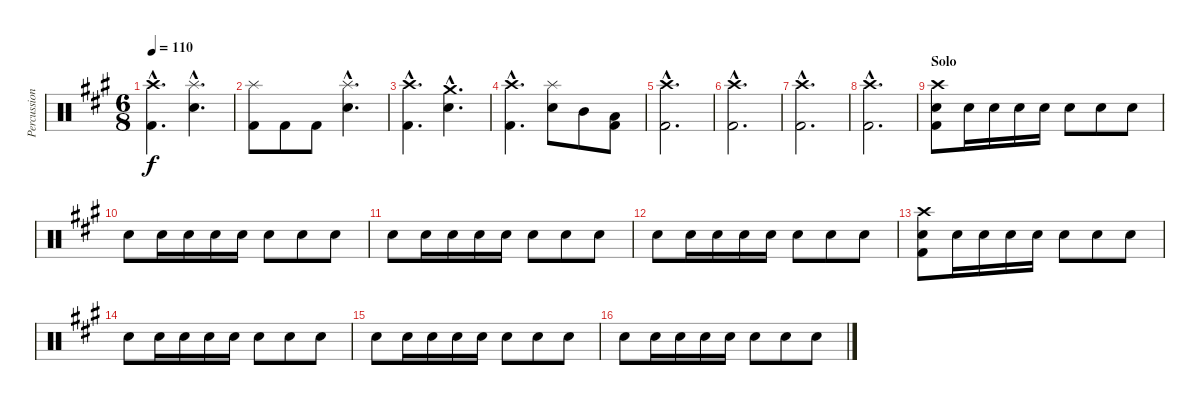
\track ("Percussions" "Percussion") {instrument percussion}
\staff {score}
\articulation defaults
\ts (6 8)
\tempo 110
\clef neutral
\ks a
("Crash high (hit)"{hac} "Kick (hit) 2"{hac}).4{d dy f} ("Splash (hit)"{hac} "Electric Snare (hit)"{hac}).4{d} |
("Splash (hit)" "Kick (hit) 2").8 "Kick (hit) 2".8 "Kick (hit) 2".8 ("Splash (hit)"{hac} "Electric Snare (hit)"{hac}).4{d} |
("Crash high (hit)"{hac} "Kick (hit) 2"{hac}).4{d} ("Crash medium (hit)"{hac} "Electric Snare (hit)"{hac}).4{d} |
("Crash high (hit)"{hac} "Kick (hit) 2"{hac}).4{d} ("Splash (hit)" "Electric Snare (hit)").8 "Mid Tom (hit)".8 ("Low Tom (hit)" "Kick (hit) 2").8 |
("Crash high (hit)"{hac} "Kick (hit) 2"{hac}).2{d} |
("Crash high (hit)"{hac} "Kick (hit) 2"{hac}).2{d} |
("Crash high (hit)"{hac} "Kick (hit) 2"{hac}).2{d} |
("Crash high (hit)"{hac} "Kick (hit) 2"{hac}).2{d} |
\section ("" "Solo")
("Crash high (hit)" "Electric Snare (hit)" "Kick (hit) 2").8 "Electric Snare (hit)".16 "Electric Snare (hit)".16 "Electric Snare (hit)".16 "Electric Snare (hit)".16 "Electric Snare (hit)".8 "Electric Snare (hit)".8 "Electric Snare (hit)".8 |
"Electric Snare (hit)".8 "Electric Snare (hit)".16 "Electric Snare (hit)".16 "Electric Snare (hit)".16 "Electric Snare (hit)".16 "Electric Snare (hit)".8 "Electric Snare (hit)".8 "Electric Snare (hit)".8 |
"Electric Snare (hit)".8 "Electric Snare (hit)".16 "Electric Snare (hit)".16 "Electric Snare (hit)".16 "Electric Snare (hit)".16 "Electric Snare (hit)".8 "Electric Snare (hit)".8 "Electric Snare (hit)".8 |
"Electric Snare (hit)".8 "Electric Snare (hit)".16 "Electric Snare (hit)".16 "Electric Snare (hit)".16 "Electric Snare (hit)".16 "Electric Snare (hit)".8 "Electric Snare (hit)".8 "Electric Snare (hit)".8 |
("Crash high (hit)" "Electric Snare (hit)" "Kick (hit) 2").8 "Electric Snare (hit)".16 "Electric Snare (hit)".16 "Electric Snare (hit)".16 "Electric Snare (hit)".16 "Electric Snare (hit)".8 "Electric Snare (hit)".8 "Electric Snare (hit)".8 |
"Electric Snare (hit)".8 "Electric Snare (hit)".16 "Electric Snare (hit)".16 "Electric Snare (hit)".16 "Electric Snare (hit)".16 "Electric Snare (hit)".8 "Electric Snare (hit)".8 "Electric Snare (hit)".8 |
"Electric Snare (hit)".8 "Electric Snare (hit)".16 "Electric Snare (hit)".16 "Electric Snare (hit)".16 "Electric Snare (hit)".16 "Electric Snare (hit)".8 "Electric Snare (hit)".8 "Electric Snare (hit)".8 |
"Electric Snare (hit)".8 "Electric Snare (hit)".16 "Electric Snare (hit)".16 "Electric Snare (hit)".16 "Electric Snare (hit)".16 "Electric Snare (hit)".8 "Electric Snare (hit)".8 "Electric Snare (hit)".8
